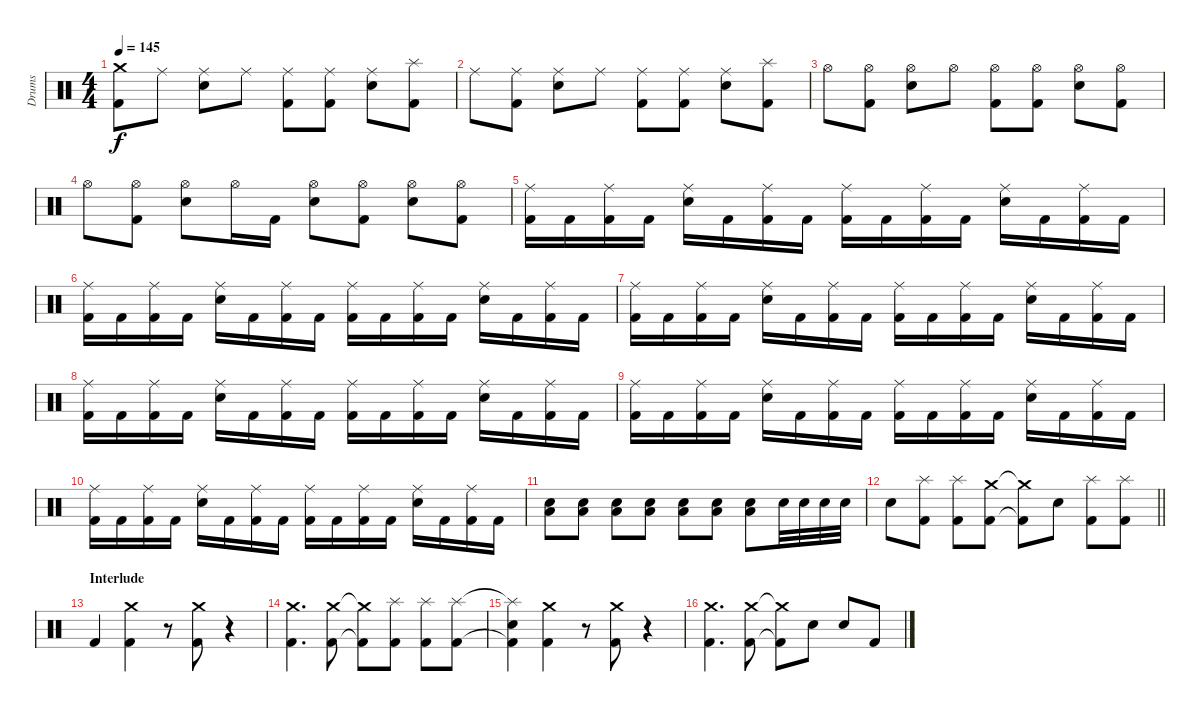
\track ("Drums" "Drums") {instrument percussion}
\staff {score}
\articulation defaults
\ts (4 4)
\tempo 145
\clef neutral
\ks c
("Crash medium (hit)" "Kick (hit) 2").8{dy f} "Ride (middle)".8 ("Ride (middle)" "Snare (hit) 2").8 "Ride (middle)".8 ("Ride (middle)" "Kick (hit) 2").8 ("Ride (middle)" "Kick (hit) 2").8 ("Ride (middle)" "Snare (hit) 2").8 ("Splash (hit)" "Kick (hit) 2").8 |
"Ride (middle)".8 ("Ride (middle)" "Kick (hit) 2").8 ("Ride (middle)" "Snare (hit) 2").8 "Ride (middle)".8 ("Ride (middle)" "Kick (hit) 2").8 ("Ride (middle)" "Kick (hit) 2").8 ("Ride (middle)" "Snare (hit) 2").8 ("Splash (hit)" "Kick (hit) 2").8 |
"Hi-Hat (open)".8 ("Hi-Hat (open)" "Kick (hit) 2").8 ("Hi-Hat (open)" "Snare (hit) 2").8 "Hi-Hat (open)".8 ("Hi-Hat (open)" "Kick (hit) 2").8 ("Hi-Hat (open)" "Kick (hit) 2").8 ("Hi-Hat (open)" "Snare (hit) 2").8 ("Hi-Hat (open)" "Kick (hit) 2").8 |
"Hi-Hat (open)".8 ("Hi-Hat (open)" "Kick (hit) 2").8 ("Hi-Hat (open)" "Snare (hit) 2").8 "Hi-Hat (open)".16 "Kick (hit) 2".16 ("Hi-Hat (open)" "Snare (hit) 2").8 ("Hi-Hat (open)" "Kick (hit) 2").8 ("Hi-Hat (open)" "Snare (hit) 2").8 ("Hi-Hat (open)" "Kick (hit) 2").8 |
("Ride (middle)" "Kick (hit) 2").16 "Kick (hit) 2".16 ("Ride (middle)" "Kick (hit) 2").16 "Kick (hit) 2".16 ("Ride (middle)" "Snare (hit) 2").16 "Kick (hit) 2".16 ("Ride (middle)" "Kick (hit) 2").16 "Kick (hit) 2".16 ("Ride (middle)" "Kick (hit) 2").16 "Kick (hit) 2".16 ("Ride (middle)" "Kick (hit) 2").16 "Kick (hit) 2".16 ("Ride (middle)" "Snare (hit) 2").16 "Kick (hit) 2".16 ("Ride (middle)" "Kick (hit) 2").16 "Kick (hit) 2".16 |
("Ride (middle)" "Kick (hit) 2").16 "Kick (hit) 2".16 ("Ride (middle)" "Kick (hit) 2").16 "Kick (hit) 2".16 ("Ride (middle)" "Snare (hit) 2").16 "Kick (hit) 2".16 ("Ride (middle)" "Kick (hit) 2").16 "Kick (hit) 2".16 ("Ride (middle)" "Kick (hit) 2").16 "Kick (hit) 2".16 ("Ride (middle)" "Kick (hit) 2").16 "Kick (hit) 2".16 ("Ride (middle)" "Snare (hit) 2").16 "Kick (hit) 2".16 ("Ride (middle)" "Kick (hit) 2").16 "Kick (hit) 2".16 |
("Ride (middle)" "Kick (hit) 2").16 "Kick (hit) 2".16 ("Ride (middle)" "Kick (hit) 2").16 "Kick (hit) 2".16 ("Ride (middle)" "Snare (hit) 2").16 "Kick (hit) 2".16 ("Ride (middle)" "Kick (hit) 2").16 "Kick (hit) 2".16 ("Ride (middle)" "Kick (hit) 2").16 "Kick (hit) 2".16 ("Ride (middle)" "Kick (hit) 2").16 "Kick (hit) 2".16 ("Ride (middle)" "Snare (hit) 2").16 "Kick (hit) 2".16 ("Ride (middle)" "Kick (hit) 2").16 "Kick (hit) 2".16 |
("Ride (middle)" "Kick (hit) 2").16 "Kick (hit) 2".16 ("Ride (middle)" "Kick (hit) 2").16 "Kick (hit) 2".16 ("Ride (middle)" "Snare (hit) 2").16 "Kick (hit) 2".16 ("Ride (middle)" "Kick (hit) 2").16 "Kick (hit) 2".16 ("Ride (middle)" "Kick (hit) 2").16 "Kick (hit) 2".16 ("Ride (middle)" "Kick (hit) 2").16 "Kick (hit) 2".16 ("Ride (middle)" "Snare (hit) 2").16 "Kick (hit) 2".16 ("Ride (middle)" "Kick (hit) 2").16 "Kick (hit) 2".16 |
("Ride (middle)" "Kick (hit) 2").16 "Kick (hit) 2".16 ("Ride (middle)" "Kick (hit) 2").16 "Kick (hit) 2".16 ("Ride (middle)" "Snare (hit) 2").16 "Kick (hit) 2".16 ("Ride (middle)" "Kick (hit) 2").16 "Kick (hit) 2".16 ("Ride (middle)" "Kick (hit) 2").16 "Kick (hit) 2".16 ("Ride (middle)" "Kick (hit) 2").16 "Kick (hit) 2".16 ("Ride (middle)" "Snare (hit) 2").16 "Kick (hit) 2".16 ("Ride (middle)" "Kick (hit) 2").16 "Kick (hit) 2".16 |
("Ride (middle)" "Kick (hit) 2").16 "Kick (hit) 2".16 ("Ride (middle)" "Kick (hit) 2").16 "Kick (hit) 2".16 ("Ride (middle)" "Snare (hit) 2").16 "Kick (hit) 2".16 ("Ride (middle)" "Kick (hit) 2").16 "Kick (hit) 2".16 ("Ride (middle)" "Kick (hit) 2").16 "Kick (hit) 2".16 ("Ride (middle)" "Kick (hit) 2").16 "Kick (hit) 2".16 ("Ride (middle)" "Snare (hit) 2").16 "Kick (hit) 2".16 ("Ride (middle)" "Kick (hit) 2").16 "Kick (hit) 2".16 |
("Snare (hit) 2" "Low Floor Tom (hit)").8 ("Snare (hit) 2" "Low Floor Tom (hit)").8 ("Snare (hit) 2" "Low Floor Tom (hit)").8 ("Snare (hit) 2" "Low Floor Tom (hit)").8 ("Snare (hit) 2" "Low Floor Tom (hit)").8 ("Snare (hit) 2" "Low Floor Tom (hit)").8 ("Snare (hit) 2" "Low Floor Tom (hit)").8 "Snare (hit) 2".32 "Snare (hit) 2".32 "Snare (hit) 2".32 "Snare (hit) 2".32 |
\barLineRight lightlight "Snare (hit) 2".8
("Splash (hit)" "Kick (hit) 2").8 ("Splash (hit)" "Kick (hit) 2").8 ("Crash medium (hit)" "Kick (hit) 2").8 ("Crash medium (hit)"{t} "Kick (hit) 2"{t}).8 "Snare (hit) 2".8 ("Splash (hit)" "Kick (hit) 2").8 ("Splash (hit)" "Kick (hit) 2").8 |
\section ("" "Interlude")
"Kick (hit) 2".4 ("Crash medium (hit)" "Kick (hit) 2").4 r.8 ("Crash medium (hit)" "Kick (hit) 2").8 r.4 |
("Crash medium (hit)" "Kick (hit) 2").4{d} ("Crash medium (hit)" "Kick (hit) 2").8 ("Crash medium (hit)"{t} "Kick (hit) 2"{t}).8 ("Splash (hit)" "Kick (hit) 2").8 ("Splash (hit)" "Kick (hit) 2").8 ("Splash (hit)" "Kick (hit) 2").8 |
("Splash (hit)"{t} "Kick (hit) 2"{t} "Snare (hit)").4 ("Crash medium (hit)" "Kick (hit) 2").4 r.8 ("Crash medium (hit)" "Kick (hit) 2").8 r.4 |
("Crash medium (hit)" "Kick (hit) 2").4{d} ("Crash medium (hit)" "Kick (hit) 2").8 ("Crash medium (hit)"{t} "Kick (hit) 2"{t}).8 "Snare (hit) 2".8 "Snare (hit) 2".8 "Kick (hit) 2".8
